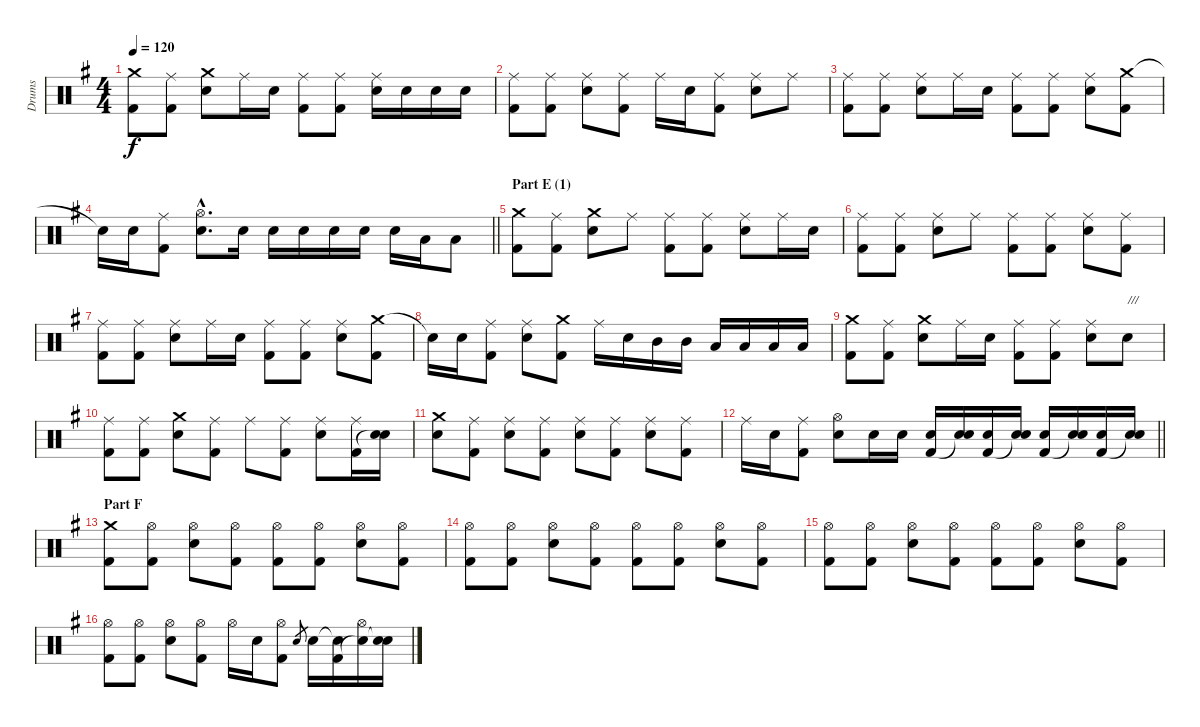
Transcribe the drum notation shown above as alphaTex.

\track ("Drums" "Drums") {instrument percussion}
\staff {score}
\articulation defaults
\ts (4 4)
\tempo 120
\clef neutral
\ks g
("Crash medium (hit)" "Kick (hit) 2").8{dy f} ("Ride (middle)" "Kick (hit) 2").8 ("Crash medium (hit)" "Electric Snare (hit)").8 "Ride (middle)".16 "Electric Snare (hit)".16 ("Ride (middle)" "Kick (hit) 2").8 ("Ride (middle)" "Kick (hit) 2").8 ("Ride (middle)" "Electric Snare (hit)").16 "Electric Snare (hit)".16 "Electric Snare (hit)".16 "Electric Snare (hit)".16 |
("Ride (middle)" "Kick (hit) 2").8 ("Ride (middle)" "Kick (hit) 2").8 ("Ride (middle)" "Electric Snare (hit)").8 ("Ride (middle)" "Kick (hit) 2").8 "Ride (middle)".16 "Electric Snare (hit)".16 ("Ride (middle)" "Kick (hit) 2").8 ("Ride (middle)" "Electric Snare (hit)").8 "Ride (middle)".8 |
("Ride (middle)" "Kick (hit) 2").8 ("Ride (middle)" "Kick (hit) 2").8 ("Ride (middle)" "Electric Snare (hit)").8 "Ride (middle)".16 "Snare (hit) 2".16 ("Ride (middle)" "Kick (hit) 2").8 ("Ride (middle)" "Kick (hit) 2").8 ("Ride (middle)" "Electric Snare (hit)").8 ("Crash medium (hit)" "Kick (hit) 2").8 |
\barLineRight lightlight "Snare (hit)"{t}.16 "Electric Snare (hit)".16
("Ride (middle)" "Kick (hit) 2").8 ("Hi-Hat (open)"{hac} "Electric Snare (hit)"{hac}).8{d} "Electric Snare (hit)".16 "Electric Snare (hit)".16 "Electric Snare (hit)".16 "Electric Snare (hit)".16 "Electric Snare (hit)".16 "Electric Snare (hit)".16 "Low Tom (hit)".16 "Low Floor Tom (hit)".8 |
\section ("" "Part E (1)")
("Crash medium (hit)" "Kick (hit) 2").8 ("Ride (middle)" "Kick (hit) 2").8 ("Crash medium (hit)" "Electric Snare (hit)").8 "Ride (middle)".8 ("Ride (middle)" "Kick (hit) 2").8 ("Ride (middle)" "Kick (hit) 2").8 ("Ride (middle)" "Electric Snare (hit)").8 "Ride (middle)".16 "Electric Snare (hit)".16 |
("Ride (middle)" "Kick (hit) 2").8 ("Ride (middle)" "Kick (hit) 2").8 ("Ride (middle)" "Electric Snare (hit)").8 "Ride (middle)".8 ("Ride (middle)" "Kick (hit) 2").8 ("Ride (middle)" "Kick (hit) 2").8 ("Ride (middle)" "Electric Snare (hit)").8 ("Ride (middle)" "Kick (hit) 2").8 |
("Ride (middle)" "Kick (hit) 2").8 ("Ride (middle)" "Kick (hit) 2").8 ("Ride (middle)" "Electric Snare (hit)").8 "Ride (middle)".16 "Electric Snare (hit)".16 ("Ride (middle)" "Kick (hit) 2").8 ("Ride (middle)" "Kick (hit) 2").8 ("Ride (middle)" "Electric Snare (hit)").8 ("Crash medium (hit)" "Kick (hit) 2").8 |
"Snare (hit)"{t}.16 "Electric Snare (hit)".16 ("Ride (middle)" "Kick (hit) 2").8 ("Ride (middle)" "Electric Snare (hit)").8 ("Crash medium (hit)" "Kick (hit) 2").8 "Ride (middle)".16 "Electric Snare (hit)".16 "Mid Tom (hit)".16 "Mid Tom (hit)".16 "Low Tom (hit)".16 "Low Tom (hit)".16 "Low Floor Tom (hit)".16 "Low Floor Tom (hit)".16 |
("Crash medium (hit)" "Kick (hit) 2").8 ("Ride (middle)" "Kick (hit) 2").8 ("Crash medium (hit)" "Electric Snare (hit)").8 "Ride (middle)".16 "Electric Snare (hit)".16 ("Ride (middle)" "Kick (hit) 2").8 ("Ride (middle)" "Kick (hit) 2").8 ("Ride (middle)" "Electric Snare (hit)").8 "Electric Snare (hit)".8{txt "///"} |
("Ride (middle)" "Kick (hit) 2").8 ("Ride (middle)" "Kick (hit) 2").8 ("Crash medium (hit)" "Electric Snare (hit)").8 ("Ride (middle)" "Kick (hit) 2").8 "Ride (middle)".8 ("Ride (middle)" "Kick (hit) 2").8 ("Ride (middle)" "Electric Snare (hit)").8 ("Ride (middle)" "Kick (hit) 2").16 ("Electric Snare (hit)" "Snare (hit)"{t}).16 |
("Crash medium (hit)" "Electric Snare (hit)").8 ("Ride (middle)" "Kick (hit) 2").8 ("Ride (middle)" "Electric Snare (hit)").8 ("Ride (middle)" "Kick (hit) 2").8 ("Ride (middle)" "Electric Snare (hit)").8 ("Ride (middle)" "Kick (hit) 2").8 ("Ride (middle)" "Electric Snare (hit)").8 ("Ride (middle)" "Kick (hit) 2").8 |
\barLineRight lightlight "Ride (middle)".16 "Electric Snare (hit)".16
("Ride (middle)" "Kick (hit) 2").8 ("Hi-Hat (open)" "Electric Snare (hit)").8 "Electric Snare (hit)".16 "Electric Snare (hit)".16 ("Electric Snare (hit)" "Kick (hit) 2").16 ("Electric Snare (hit)" "Snare (hit)"{t}).16 ("Electric Snare (hit)" "Kick (hit) 2").16 ("Electric Snare (hit)" "Snare (hit)"{t}).16 ("Electric Snare (hit)" "Kick (hit) 2").16 ("Electric Snare (hit)" "Snare (hit)"{t}).16 ("Electric Snare (hit)" "Kick (hit) 2").16 ("Electric Snare (hit)" "Snare (hit)"{t}).16 |
\section ("" "Part F")
("Crash medium (hit)" "Kick (hit) 2").8 ("Hi-Hat (open)" "Kick (hit) 2").8 ("Hi-Hat (open)" "Electric Snare (hit)").8 ("Hi-Hat (open)" "Kick (hit) 2").8 ("Hi-Hat (open)" "Kick (hit) 2").8 ("Hi-Hat (open)" "Kick (hit) 2").8 ("Hi-Hat (open)" "Electric Snare (hit)").8 ("Hi-Hat (open)" "Kick (hit) 2").8 |
("Hi-Hat (open)" "Kick (hit) 2").8 ("Hi-Hat (open)" "Kick (hit) 2").8 ("Hi-Hat (open)" "Electric Snare (hit)").8 ("Hi-Hat (open)" "Kick (hit) 2").8 ("Hi-Hat (open)" "Kick (hit) 2").8 ("Hi-Hat (open)" "Kick (hit) 2").8 ("Hi-Hat (open)" "Electric Snare (hit)").8 ("Hi-Hat (open)" "Kick (hit) 2").8 |
("Hi-Hat (open)" "Kick (hit) 2").8 ("Hi-Hat (open)" "Kick (hit) 2").8 ("Hi-Hat (open)" "Electric Snare (hit)").8 ("Hi-Hat (open)" "Kick (hit) 2").8 ("Hi-Hat (open)" "Kick (hit) 2").8 ("Hi-Hat (open)" "Kick (hit) 2").8 ("Hi-Hat (open)" "Electric Snare (hit)").8 ("Hi-Hat (open)" "Kick (hit) 2").8 |
("Hi-Hat (open)" "Kick (hit) 2").8 ("Hi-Hat (open)" "Kick (hit) 2").8 ("Hi-Hat (open)" "Electric Snare (hit)").8 ("Hi-Hat (open)" "Kick (hit) 2").8 "Hi-Hat (open)".16 "Electric Snare (hit)".16 ("Hi-Hat (open)" "Kick (hit) 2").8 "Electric Snare (hit)".8{gr} "Electric Snare (hit)".16 ("Snare (hit)"{t} "Kick (hit) 2").16 ("Hi-Hat (open)" "Snare (hit)"{t}).16 ("Electric Snare (hit)" "Snare (hit)"{t}).16
